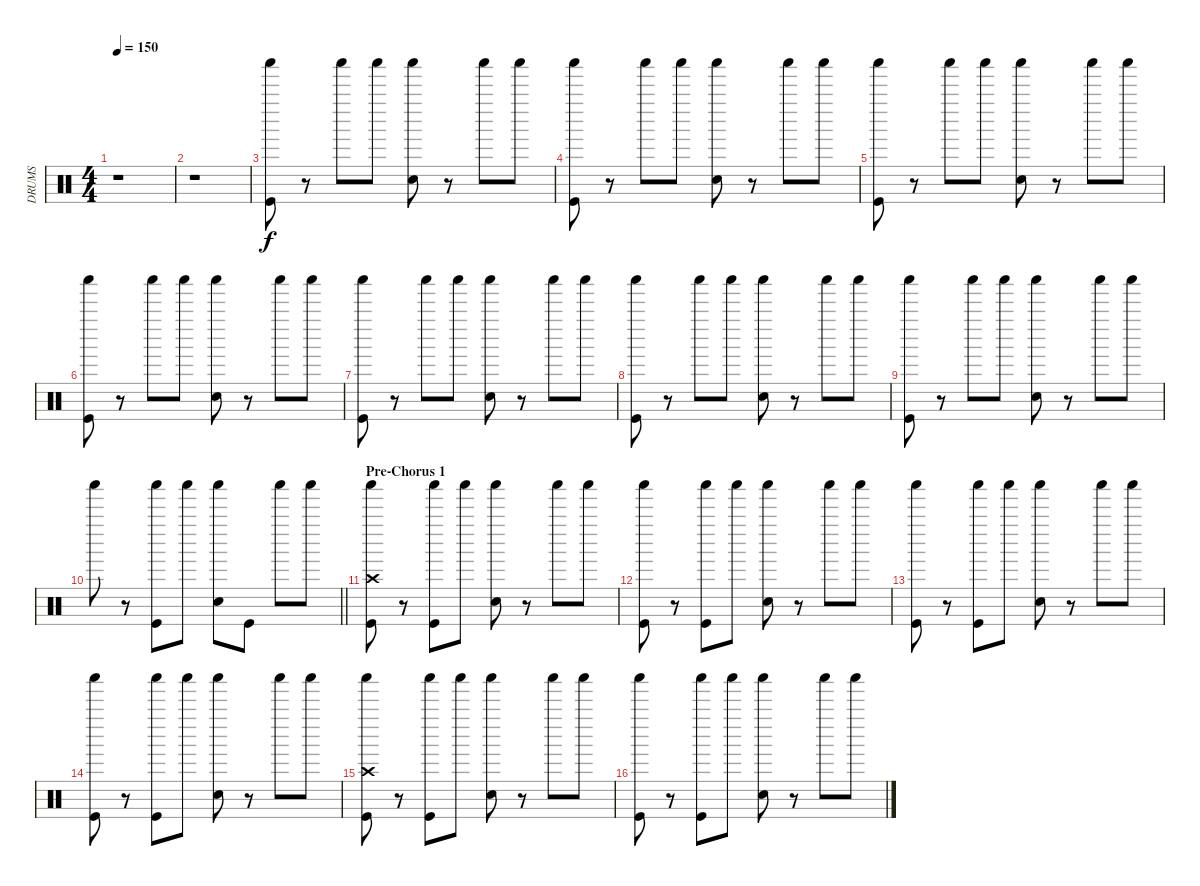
\track ("DRUMS" "DRUMS") {instrument percussion}
\staff {score}
\articulation defaults
\ts (4 4)
\tempo 150
\clef neutral
\ks c
r.1{dy f} |
r.1 |
("Shaker (hit)" "Kick (hit)").8 r.8 "Shaker (hit)".8 "Shaker (hit)".8 ("Shaker (hit)" "Snare (hit) 2").8 r.8 "Shaker (hit)".8 "Shaker (hit)".8 |
("Shaker (hit)" "Kick (hit)").8 r.8 "Shaker (hit)".8 "Shaker (hit)".8 ("Shaker (hit)" "Snare (hit) 2").8 r.8 "Shaker (hit)".8 "Shaker (hit)".8 |
("Shaker (hit)" "Kick (hit)").8 r.8 "Shaker (hit)".8 "Shaker (hit)".8 ("Shaker (hit)" "Snare (hit) 2").8 r.8 "Shaker (hit)".8 "Shaker (hit)".8 |
("Shaker (hit)" "Kick (hit)").8 r.8 "Shaker (hit)".8 "Shaker (hit)".8 ("Shaker (hit)" "Snare (hit) 2").8 r.8 "Shaker (hit)".8 "Shaker (hit)".8 |
("Shaker (hit)" "Kick (hit)").8 r.8 "Shaker (hit)".8 "Shaker (hit)".8 ("Shaker (hit)" "Snare (hit) 2").8 r.8 "Shaker (hit)".8 "Shaker (hit)".8 |
("Shaker (hit)" "Kick (hit)").8 r.8 "Shaker (hit)".8 "Shaker (hit)".8 ("Shaker (hit)" "Snare (hit) 2").8 r.8 "Shaker (hit)".8 "Shaker (hit)".8 |
("Shaker (hit)" "Kick (hit)").8 r.8 "Shaker (hit)".8 "Shaker (hit)".8 ("Shaker (hit)" "Snare (hit) 2").8 r.8 "Shaker (hit)".8 "Shaker (hit)".8 |
\barLineRight lightlight "Shaker (hit)".8
r.8 ("Shaker (hit)" "Kick (hit)").8 "Shaker (hit)".8 ("Shaker (hit)" "Snare (hit) 2").8 "Kick (hit)".8 "Shaker (hit)".8 "Shaker (hit)".8 |
\section ("" "Pre-Chorus 1")
("Shaker (hit)" "Crash high (hit)" "Kick (hit)").8 r.8 ("Shaker (hit)" "Kick (hit)").8 "Shaker (hit)".8 ("Shaker (hit)" "Snare (hit) 2").8 r.8 "Shaker (hit)".8 "Shaker (hit)".8 |
("Shaker (hit)" "Kick (hit)").8 r.8 ("Shaker (hit)" "Kick (hit)").8 "Shaker (hit)".8 ("Shaker (hit)" "Snare (hit) 2").8 r.8 "Shaker (hit)".8 "Shaker (hit)".8 |
("Shaker (hit)" "Kick (hit)").8 r.8 ("Shaker (hit)" "Kick (hit)").8 "Shaker (hit)".8 ("Shaker (hit)" "Snare (hit) 2").8 r.8 "Shaker (hit)".8 "Shaker (hit)".8 |
("Shaker (hit)" "Kick (hit)").8 r.8 ("Shaker (hit)" "Kick (hit)").8 "Shaker (hit)".8 ("Shaker (hit)" "Snare (hit) 2").8 r.8 "Shaker (hit)".8 "Shaker (hit)".8 |
("Shaker (hit)" "Crash high (hit)" "Kick (hit)").8 r.8 ("Shaker (hit)" "Kick (hit)").8 "Shaker (hit)".8 ("Shaker (hit)" "Snare (hit) 2").8 r.8 "Shaker (hit)".8 "Shaker (hit)".8 |
("Shaker (hit)" "Kick (hit)").8 r.8 ("Shaker (hit)" "Kick (hit)").8 "Shaker (hit)".8 ("Shaker (hit)" "Snare (hit) 2").8 r.8 "Shaker (hit)".8 "Shaker (hit)".8
